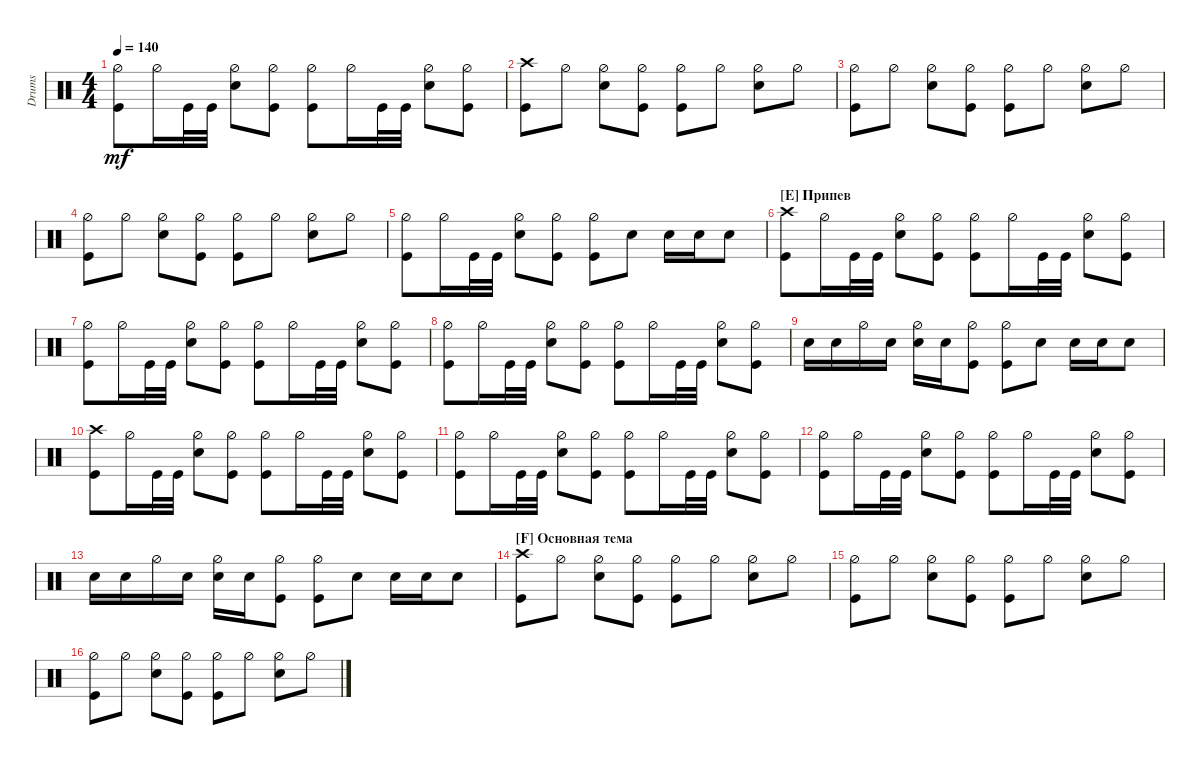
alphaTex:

\track ("Drumkit" "Drums") {instrument percussion}
\staff {score}
\articulation defaults
\ts (4 4)
\tempo 140
\clef neutral
\ks c
("Kick (hit)" "Hi-Hat (half)").8{dy mf} "Hi-Hat (half)".16 "Kick (hit)".32 "Kick (hit)".32 ("Hi-Hat (half)" "Snare (hit) 2").8 ("Kick (hit)" "Hi-Hat (half)").8 ("Kick (hit)" "Hi-Hat (half)").8 "Hi-Hat (half)".16 "Kick (hit)".32 "Kick (hit)".32 ("Hi-Hat (half)" "Snare (hit) 2").8 ("Hi-Hat (half)" "Kick (hit)").8 |
("Kick (hit)" "Crash high (hit)").8 "Hi-Hat (half)".8 ("Snare (hit) 2" "Hi-Hat (half)").8 ("Kick (hit)" "Hi-Hat (half)").8 ("Kick (hit)" "Hi-Hat (half)").8 "Hi-Hat (half)".8 ("Snare (hit) 2" "Hi-Hat (half)").8 "Hi-Hat (half)".8 |
("Kick (hit)" "Hi-Hat (half)").8 "Hi-Hat (half)".8 ("Snare (hit) 2" "Hi-Hat (half)").8 ("Kick (hit)" "Hi-Hat (half)").8 ("Kick (hit)" "Hi-Hat (half)").8 "Hi-Hat (half)".8 ("Snare (hit) 2" "Hi-Hat (half)").8 "Hi-Hat (half)".8 |
("Kick (hit)" "Hi-Hat (half)").8 "Hi-Hat (half)".8 ("Snare (hit) 2" "Hi-Hat (half)").8 ("Kick (hit)" "Hi-Hat (half)").8 ("Kick (hit)" "Hi-Hat (half)").8 "Hi-Hat (half)".8 ("Snare (hit) 2" "Hi-Hat (half)").8 "Hi-Hat (half)".8 |
("Kick (hit)" "Hi-Hat (half)").8 "Hi-Hat (half)".16 "Kick (hit)".32 "Kick (hit)".32 ("Hi-Hat (half)" "Snare (hit) 2").8 ("Kick (hit)" "Hi-Hat (half)").8 ("Kick (hit)" "Hi-Hat (half)").8 "Snare (hit) 2".8 "Snare (hit) 2".16 "Snare (hit) 2".16 "Snare (hit) 2".8 |
\section ("E" "Припев")
("Kick (hit)" "Crash high (hit)").8 "Hi-Hat (half)".16 "Kick (hit)".32 "Kick (hit)".32 ("Hi-Hat (half)" "Snare (hit) 2").8 ("Kick (hit)" "Hi-Hat (half)").8 ("Kick (hit)" "Hi-Hat (half)").8 "Hi-Hat (half)".16 "Kick (hit)".32 "Kick (hit)".32 ("Hi-Hat (half)" "Snare (hit) 2").8 ("Hi-Hat (half)" "Kick (hit)").8 |
("Kick (hit)" "Hi-Hat (half)").8 "Hi-Hat (half)".16 "Kick (hit)".32 "Kick (hit)".32 ("Hi-Hat (half)" "Snare (hit) 2").8 ("Kick (hit)" "Hi-Hat (half)").8 ("Kick (hit)" "Hi-Hat (half)").8 "Hi-Hat (half)".16 "Kick (hit)".32 "Kick (hit)".32 ("Hi-Hat (half)" "Snare (hit) 2").8 ("Hi-Hat (half)" "Kick (hit)").8 |
("Kick (hit)" "Hi-Hat (half)").8 "Hi-Hat (half)".16 "Kick (hit)".32 "Kick (hit)".32 ("Hi-Hat (half)" "Snare (hit) 2").8 ("Kick (hit)" "Hi-Hat (half)").8 ("Kick (hit)" "Hi-Hat (half)").8 "Hi-Hat (half)".16 "Kick (hit)".32 "Kick (hit)".32 ("Hi-Hat (half)" "Snare (hit) 2").8 ("Hi-Hat (half)" "Kick (hit)").8 |
"Snare (hit) 2".16 "Snare (hit) 2".16 "Hi-Hat (half)".16 "Snare (hit) 2".16 ("Hi-Hat (half)" "Snare (hit) 2").16 "Snare (hit) 2".16 ("Kick (hit)" "Hi-Hat (half)").8 ("Kick (hit)" "Hi-Hat (half)").8 "Snare (hit) 2".8 "Snare (hit) 2".16 "Snare (hit) 2".16 "Snare (hit) 2".8 |
("Kick (hit)" "Crash high (hit)").8 "Hi-Hat (half)".16 "Kick (hit)".32 "Kick (hit)".32 ("Hi-Hat (half)" "Snare (hit) 2").8 ("Kick (hit)" "Hi-Hat (half)").8 ("Kick (hit)" "Hi-Hat (half)").8 "Hi-Hat (half)".16 "Kick (hit)".32 "Kick (hit)".32 ("Hi-Hat (half)" "Snare (hit) 2").8 ("Hi-Hat (half)" "Kick (hit)").8 |
("Kick (hit)" "Hi-Hat (half)").8 "Hi-Hat (half)".16 "Kick (hit)".32 "Kick (hit)".32 ("Hi-Hat (half)" "Snare (hit) 2").8 ("Kick (hit)" "Hi-Hat (half)").8 ("Kick (hit)" "Hi-Hat (half)").8 "Hi-Hat (half)".16 "Kick (hit)".32 "Kick (hit)".32 ("Hi-Hat (half)" "Snare (hit) 2").8 ("Hi-Hat (half)" "Kick (hit)").8 |
("Kick (hit)" "Hi-Hat (half)").8 "Hi-Hat (half)".16 "Kick (hit)".32 "Kick (hit)".32 ("Hi-Hat (half)" "Snare (hit) 2").8 ("Kick (hit)" "Hi-Hat (half)").8 ("Kick (hit)" "Hi-Hat (half)").8 "Hi-Hat (half)".16 "Kick (hit)".32 "Kick (hit)".32 ("Hi-Hat (half)" "Snare (hit) 2").8 ("Hi-Hat (half)" "Kick (hit)").8 |
"Snare (hit) 2".16 "Snare (hit) 2".16 "Hi-Hat (half)".16 "Snare (hit) 2".16 ("Hi-Hat (half)" "Snare (hit) 2").16 "Snare (hit) 2".16 ("Kick (hit)" "Hi-Hat (half)").8 ("Kick (hit)" "Hi-Hat (half)").8 "Snare (hit) 2".8 "Snare (hit) 2".16 "Snare (hit) 2".16 "Snare (hit) 2".8 |
\section ("F" "Основная тема")
("Kick (hit)" "Crash high (hit)").8 "Hi-Hat (half)".8 ("Snare (hit) 2" "Hi-Hat (half)").8 ("Kick (hit)" "Hi-Hat (half)").8 ("Kick (hit)" "Hi-Hat (half)").8 "Hi-Hat (half)".8 ("Snare (hit) 2" "Hi-Hat (half)").8 "Hi-Hat (half)".8 |
("Kick (hit)" "Hi-Hat (half)").8 "Hi-Hat (half)".8 ("Snare (hit) 2" "Hi-Hat (half)").8 ("Kick (hit)" "Hi-Hat (half)").8 ("Kick (hit)" "Hi-Hat (half)").8 "Hi-Hat (half)".8 ("Snare (hit) 2" "Hi-Hat (half)").8 "Hi-Hat (half)".8 |
("Kick (hit)" "Hi-Hat (half)").8 "Hi-Hat (half)".8 ("Snare (hit) 2" "Hi-Hat (half)").8 ("Kick (hit)" "Hi-Hat (half)").8 ("Kick (hit)" "Hi-Hat (half)").8 "Hi-Hat (half)".8 ("Snare (hit) 2" "Hi-Hat (half)").8 "Hi-Hat (half)".8
